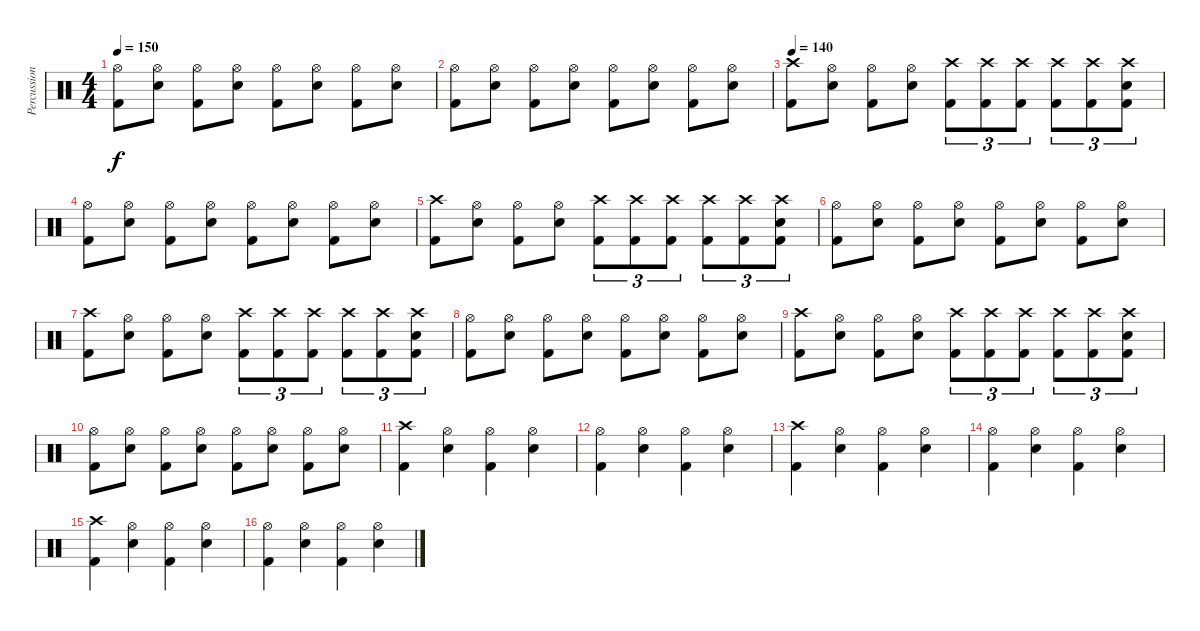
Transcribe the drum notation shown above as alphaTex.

\track ("Percussion" "Percussion") {instrument percussion}
\staff {score}
\articulation defaults
\ts (4 4)
\tempo 150
\clef neutral
\ks c
("Hi-Hat (open)" "Kick (hit) 2").8{dy f} ("Hi-Hat (open)" "Snare (hit) 2").8 ("Hi-Hat (open)" "Kick (hit) 2").8 ("Hi-Hat (open)" "Snare (hit) 2").8 ("Hi-Hat (open)" "Kick (hit) 2").8 ("Hi-Hat (open)" "Snare (hit) 2").8 ("Hi-Hat (open)" "Kick (hit) 2").8 ("Hi-Hat (open)" "Snare (hit) 2").8 |
("Hi-Hat (open)" "Kick (hit) 2").8 ("Hi-Hat (open)" "Snare (hit) 2").8 ("Hi-Hat (open)" "Kick (hit) 2").8 ("Hi-Hat (open)" "Snare (hit) 2").8 ("Hi-Hat (open)" "Kick (hit) 2").8 ("Hi-Hat (open)" "Snare (hit) 2").8 ("Hi-Hat (open)" "Kick (hit) 2").8 ("Hi-Hat (open)" "Snare (hit) 2").8 |
\tempo 140
("Crash high (hit)" "Kick (hit) 2").8 ("Hi-Hat (open)" "Snare (hit) 2").8 ("Hi-Hat (open)" "Kick (hit) 2").8 ("Hi-Hat (open)" "Snare (hit) 2").8 ("Crash high (hit)" "Kick (hit) 2").8{tu (3 2)} ("Crash high (hit)" "Kick (hit) 2").8{tu (3 2)} ("Crash high (hit)" "Kick (hit) 2").8{tu (3 2)} ("Crash high (hit)" "Kick (hit) 2").8{tu (3 2)} ("Crash high (hit)" "Kick (hit) 2").8{tu (3 2)} ("Crash high (hit)" "Snare (hit) 2" "Kick (hit) 2").8{tu (3 2)} |
("Hi-Hat (open)" "Kick (hit) 2").8 ("Hi-Hat (open)" "Snare (hit) 2").8 ("Hi-Hat (open)" "Kick (hit) 2").8 ("Hi-Hat (open)" "Snare (hit) 2").8 ("Hi-Hat (open)" "Kick (hit) 2").8 ("Hi-Hat (open)" "Snare (hit) 2").8 ("Hi-Hat (open)" "Kick (hit) 2").8 ("Hi-Hat (open)" "Snare (hit) 2").8 |
("Crash high (hit)" "Kick (hit) 2").8 ("Hi-Hat (open)" "Snare (hit) 2").8 ("Hi-Hat (open)" "Kick (hit) 2").8 ("Hi-Hat (open)" "Snare (hit) 2").8 ("Crash high (hit)" "Kick (hit) 2").8{tu (3 2)} ("Crash high (hit)" "Kick (hit) 2").8{tu (3 2)} ("Crash high (hit)" "Kick (hit) 2").8{tu (3 2)} ("Crash high (hit)" "Kick (hit) 2").8{tu (3 2)} ("Crash high (hit)" "Kick (hit) 2").8{tu (3 2)} ("Crash high (hit)" "Snare (hit) 2" "Kick (hit) 2").8{tu (3 2)} |
("Hi-Hat (open)" "Kick (hit) 2").8 ("Hi-Hat (open)" "Snare (hit) 2").8 ("Hi-Hat (open)" "Kick (hit) 2").8 ("Hi-Hat (open)" "Snare (hit) 2").8 ("Hi-Hat (open)" "Kick (hit) 2").8 ("Hi-Hat (open)" "Snare (hit) 2").8 ("Hi-Hat (open)" "Kick (hit) 2").8 ("Hi-Hat (open)" "Snare (hit) 2").8 |
("Crash high (hit)" "Kick (hit) 2").8 ("Hi-Hat (open)" "Snare (hit) 2").8 ("Hi-Hat (open)" "Kick (hit) 2").8 ("Hi-Hat (open)" "Snare (hit) 2").8 ("Crash high (hit)" "Kick (hit) 2").8{tu (3 2)} ("Crash high (hit)" "Kick (hit) 2").8{tu (3 2)} ("Crash high (hit)" "Kick (hit) 2").8{tu (3 2)} ("Crash high (hit)" "Kick (hit) 2").8{tu (3 2)} ("Crash high (hit)" "Kick (hit) 2").8{tu (3 2)} ("Crash high (hit)" "Snare (hit) 2" "Kick (hit) 2").8{tu (3 2)} |
("Hi-Hat (open)" "Kick (hit) 2").8 ("Hi-Hat (open)" "Snare (hit) 2").8 ("Hi-Hat (open)" "Kick (hit) 2").8 ("Hi-Hat (open)" "Snare (hit) 2").8 ("Hi-Hat (open)" "Kick (hit) 2").8 ("Hi-Hat (open)" "Snare (hit) 2").8 ("Hi-Hat (open)" "Kick (hit) 2").8 ("Hi-Hat (open)" "Snare (hit) 2").8 |
("Crash high (hit)" "Kick (hit) 2").8 ("Hi-Hat (open)" "Snare (hit) 2").8 ("Hi-Hat (open)" "Kick (hit) 2").8 ("Hi-Hat (open)" "Snare (hit) 2").8 ("Crash high (hit)" "Kick (hit) 2").8{tu (3 2)} ("Crash high (hit)" "Kick (hit) 2").8{tu (3 2)} ("Crash high (hit)" "Kick (hit) 2").8{tu (3 2)} ("Crash high (hit)" "Kick (hit) 2").8{tu (3 2)} ("Crash high (hit)" "Kick (hit) 2").8{tu (3 2)} ("Crash high (hit)" "Snare (hit) 2" "Kick (hit) 2").8{tu (3 2)} |
("Hi-Hat (open)" "Kick (hit) 2").8 ("Hi-Hat (open)" "Snare (hit) 2").8 ("Hi-Hat (open)" "Kick (hit) 2").8 ("Hi-Hat (open)" "Snare (hit) 2").8 ("Hi-Hat (open)" "Kick (hit) 2").8 ("Hi-Hat (open)" "Snare (hit) 2").8 ("Hi-Hat (open)" "Kick (hit) 2").8 ("Hi-Hat (open)" "Snare (hit) 2").8 |
("Crash high (hit)" "Kick (hit) 2").4 ("Hi-Hat (open)" "Snare (hit) 2").4 ("Hi-Hat (open)" "Kick (hit) 2").4 ("Hi-Hat (open)" "Snare (hit) 2").4 |
("Hi-Hat (open)" "Kick (hit) 2").4 ("Hi-Hat (open)" "Snare (hit) 2").4 ("Hi-Hat (open)" "Kick (hit) 2").4 ("Hi-Hat (open)" "Snare (hit) 2").4 |
("Crash high (hit)" "Kick (hit) 2").4 ("Hi-Hat (open)" "Snare (hit) 2").4 ("Hi-Hat (open)" "Kick (hit) 2").4 ("Hi-Hat (open)" "Snare (hit) 2").4 |
("Hi-Hat (open)" "Kick (hit) 2").4 ("Hi-Hat (open)" "Snare (hit) 2").4 ("Hi-Hat (open)" "Kick (hit) 2").4 ("Hi-Hat (open)" "Snare (hit) 2").4 |
("Crash high (hit)" "Kick (hit) 2").4 ("Hi-Hat (open)" "Snare (hit) 2").4 ("Hi-Hat (open)" "Kick (hit) 2").4 ("Hi-Hat (open)" "Snare (hit) 2").4 |
("Hi-Hat (open)" "Kick (hit) 2").4 ("Hi-Hat (open)" "Snare (hit) 2").4 ("Hi-Hat (open)" "Kick (hit) 2").4 ("Hi-Hat (open)" "Snare (hit) 2").4
